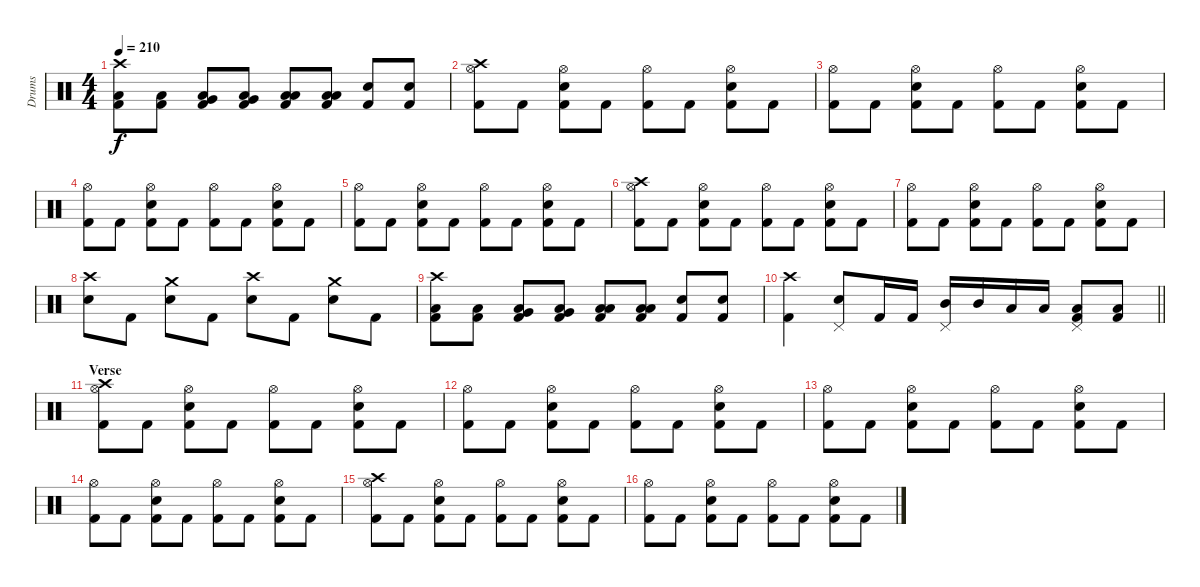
\track ("Drums" "Drums") {instrument percussion}
\staff {score}
\articulation defaults
\ts (4 4)
\tempo 210
\clef neutral
\ks c
("Crash high (hit)" "Low Floor Tom (hit)" "Kick (hit) 2").8{dy f} ("Low Floor Tom (hit)" "Kick (hit) 2").8 ("Very Low Tom (hit)" "Low Floor Tom (hit)" "Kick (hit) 2").8 ("Very Low Tom (hit)" "Low Floor Tom (hit)" "Kick (hit) 2").8 ("Low Tom (hit)" "Low Floor Tom (hit)" "Kick (hit) 2").8 ("Low Tom (hit)" "Low Floor Tom (hit)" "Kick (hit) 2").8 ("Snare (hit) 2" "Kick (hit) 2").8 ("Snare (hit) 2" "Kick (hit) 2").8 |
("Crash high (hit)" "Hi-Hat (open)" "Kick (hit) 2").8 "Kick (hit) 2".8 ("Hi-Hat (open)" "Snare (hit) 2" "Kick (hit) 2").8 "Kick (hit) 2".8 ("Hi-Hat (open)" "Kick (hit) 2").8 "Kick (hit) 2".8 ("Hi-Hat (open)" "Snare (hit) 2" "Kick (hit) 2").8 "Kick (hit) 2".8 |
("Hi-Hat (open)" "Kick (hit) 2").8 "Kick (hit) 2".8 ("Hi-Hat (open)" "Snare (hit) 2" "Kick (hit) 2").8 "Kick (hit) 2".8 ("Hi-Hat (open)" "Kick (hit) 2").8 "Kick (hit) 2".8 ("Hi-Hat (open)" "Snare (hit) 2" "Kick (hit) 2").8 "Kick (hit) 2".8 |
("Hi-Hat (open)" "Kick (hit) 2").8 "Kick (hit) 2".8 ("Hi-Hat (open)" "Snare (hit) 2" "Kick (hit) 2").8 "Kick (hit) 2".8 ("Hi-Hat (open)" "Kick (hit) 2").8 "Kick (hit) 2".8 ("Hi-Hat (open)" "Snare (hit) 2" "Kick (hit) 2").8 "Kick (hit) 2".8 |
("Hi-Hat (open)" "Kick (hit) 2").8 "Kick (hit) 2".8 ("Hi-Hat (open)" "Snare (hit) 2" "Kick (hit) 2").8 "Kick (hit) 2".8 ("Hi-Hat (open)" "Kick (hit) 2").8 "Kick (hit) 2".8 ("Hi-Hat (open)" "Snare (hit) 2" "Kick (hit) 2").8 "Kick (hit) 2".8 |
("Crash high (hit)" "Hi-Hat (open)" "Kick (hit) 2").8 "Kick (hit) 2".8 ("Hi-Hat (open)" "Snare (hit) 2" "Kick (hit) 2").8 "Kick (hit) 2".8 ("Hi-Hat (open)" "Kick (hit) 2").8 "Kick (hit) 2".8 ("Hi-Hat (open)" "Snare (hit) 2" "Kick (hit) 2").8 "Kick (hit) 2".8 |
("Hi-Hat (open)" "Kick (hit) 2").8 "Kick (hit) 2".8 ("Hi-Hat (open)" "Snare (hit) 2" "Kick (hit) 2").8 "Kick (hit) 2".8 ("Hi-Hat (open)" "Kick (hit) 2").8 "Kick (hit) 2".8 ("Hi-Hat (open)" "Snare (hit) 2" "Kick (hit) 2").8 "Kick (hit) 2".8 |
("Crash high (hit)" "Snare (hit) 2").8 "Kick (hit) 2".8 ("Crash medium (hit)" "Snare (hit) 2").8 "Kick (hit) 2".8 ("Crash high (hit)" "Snare (hit) 2").8 "Kick (hit) 2".8 ("Crash medium (hit)" "Snare (hit) 2").8 "Kick (hit) 2".8 |
("Crash high (hit)" "Low Floor Tom (hit)" "Kick (hit) 2").8 ("Low Floor Tom (hit)" "Kick (hit) 2").8 ("Very Low Tom (hit)" "Low Floor Tom (hit)" "Kick (hit) 2").8 ("Very Low Tom (hit)" "Low Floor Tom (hit)" "Kick (hit) 2").8 ("Low Tom (hit)" "Low Floor Tom (hit)" "Kick (hit) 2").8 ("Low Tom (hit)" "Low Floor Tom (hit)" "Kick (hit) 2").8 ("Snare (hit) 2" "Kick (hit) 2").8 ("Snare (hit) 2" "Kick (hit) 2").8 |
\barLineRight lightlight
("Crash high (hit)" "Kick (hit) 2").4 ("Pedal Hi-Hat (hit)" "Snare (hit) 2").8 "Kick (hit) 2".16 "Kick (hit) 2".16 ("Pedal Hi-Hat (hit)" "Mid Tom (hit)").16 "Mid Tom (hit)".16 "Low Tom (hit)".16 "Low Tom (hit)".16 ("Pedal Hi-Hat (hit)" "Low Floor Tom (hit)" "Kick (hit) 2").8 ("Low Floor Tom (hit)" "Kick (hit) 2").8 |
\section ("" "Verse")
("Crash high (hit)" "Hi-Hat (open)" "Kick (hit) 2").8 "Kick (hit) 2".8 ("Hi-Hat (open)" "Snare (hit) 2" "Kick (hit) 2").8 "Kick (hit) 2".8 ("Hi-Hat (open)" "Kick (hit) 2").8 "Kick (hit) 2".8 ("Hi-Hat (open)" "Snare (hit) 2" "Kick (hit) 2").8 "Kick (hit) 2".8 |
("Hi-Hat (open)" "Kick (hit) 2").8 "Kick (hit) 2".8 ("Hi-Hat (open)" "Snare (hit) 2" "Kick (hit) 2").8 "Kick (hit) 2".8 ("Hi-Hat (open)" "Kick (hit) 2").8 "Kick (hit) 2".8 ("Hi-Hat (open)" "Snare (hit) 2" "Kick (hit) 2").8 "Kick (hit) 2".8 |
("Hi-Hat (open)" "Kick (hit) 2").8 "Kick (hit) 2".8 ("Hi-Hat (open)" "Snare (hit) 2" "Kick (hit) 2").8 "Kick (hit) 2".8 ("Hi-Hat (open)" "Kick (hit) 2").8 "Kick (hit) 2".8 ("Hi-Hat (open)" "Snare (hit) 2" "Kick (hit) 2").8 "Kick (hit) 2".8 |
("Hi-Hat (open)" "Kick (hit) 2").8 "Kick (hit) 2".8 ("Hi-Hat (open)" "Snare (hit) 2" "Kick (hit) 2").8 "Kick (hit) 2".8 ("Hi-Hat (open)" "Kick (hit) 2").8 "Kick (hit) 2".8 ("Hi-Hat (open)" "Snare (hit) 2" "Kick (hit) 2").8 "Kick (hit) 2".8 |
("Crash high (hit)" "Hi-Hat (open)" "Kick (hit) 2").8 "Kick (hit) 2".8 ("Hi-Hat (open)" "Snare (hit) 2" "Kick (hit) 2").8 "Kick (hit) 2".8 ("Hi-Hat (open)" "Kick (hit) 2").8 "Kick (hit) 2".8 ("Hi-Hat (open)" "Snare (hit) 2" "Kick (hit) 2").8 "Kick (hit) 2".8 |
("Hi-Hat (open)" "Kick (hit) 2").8 "Kick (hit) 2".8 ("Hi-Hat (open)" "Snare (hit) 2" "Kick (hit) 2").8 "Kick (hit) 2".8 ("Hi-Hat (open)" "Kick (hit) 2").8 "Kick (hit) 2".8 ("Hi-Hat (open)" "Snare (hit) 2" "Kick (hit) 2").8 "Kick (hit) 2".8
